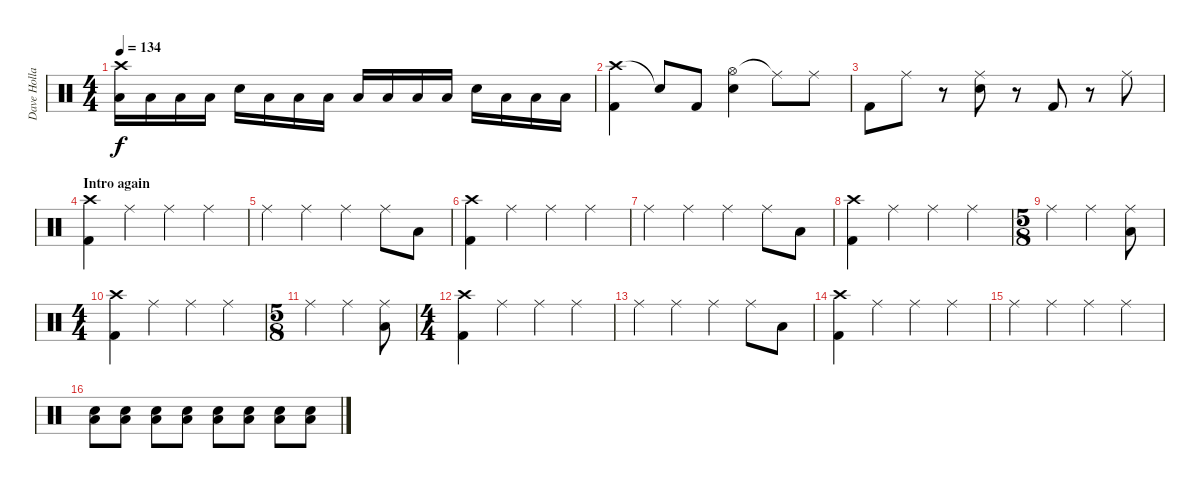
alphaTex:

\track ("Dave Holland" "Dave Holla") {instrument percussion}
\staff {score}
\articulation defaults
\ts (4 4)
\tempo 134
\clef neutral
\ks c
("Crash high (hit)" "Low Floor Tom (hit)").16{dy f} "Low Floor Tom (hit)".16 "Low Floor Tom (hit)".16 "Low Floor Tom (hit)".16 "Snare (hit) 2".16 "Low Floor Tom (hit)".16 "Low Floor Tom (hit)".16 "Low Floor Tom (hit)".16 "Low Floor Tom (hit)".16 "Low Floor Tom (hit)".16 "Low Floor Tom (hit)".16 "Low Floor Tom (hit)".16 "Snare (hit) 2".16 "Low Floor Tom (hit)".16 "Low Floor Tom (hit)".16 "Low Floor Tom (hit)".16 |
("Crash high (hit)" "Kick (hit) 2").4 "Snare (hit)"{t}.8 "Kick (hit) 2".8 ("Hi-Hat (open)" "Snare (hit) 2").4 "Ride (middle)"{t}.8 "Ride (middle)".8 |
"Kick (hit) 2".8 "Ride (middle)".8 r.8 ("Ride (middle)" "Snare (hit) 2").8 r.8 "Kick (hit) 2".8 r.8 "Ride (middle)".8 |
\section ("" "Intro again")
("Crash high (hit)" "Kick (hit) 2").4 "Ride (middle)".4 "Ride (middle)".4 "Ride (middle)".4 |
"Ride (middle)".4 "Ride (middle)".4 "Ride (middle)".4 "Ride (middle)".8 "Low Floor Tom (hit)".8 |
("Crash high (hit)" "Kick (hit) 2").4 "Ride (middle)".4 "Ride (middle)".4 "Ride (middle)".4 |
"Ride (middle)".4 "Ride (middle)".4 "Ride (middle)".4 "Ride (middle)".8 "Low Floor Tom (hit)".8 |
("Crash high (hit)" "Kick (hit) 2").4 "Ride (middle)".4 "Ride (middle)".4 "Ride (middle)".4 |
\ts (5 8)
"Ride (middle)".4 "Ride (middle)".4 ("Ride (middle)" "Low Floor Tom (hit)").8 |
\ts (4 4)
("Crash high (hit)" "Kick (hit) 2").4 "Ride (middle)".4 "Ride (middle)".4 "Ride (middle)".4 |
\ts (5 8)
"Ride (middle)".4 "Ride (middle)".4 ("Ride (middle)" "Low Floor Tom (hit)").8 |
\ts (4 4)
("Crash high (hit)" "Kick (hit) 2").4 "Ride (middle)".4 "Ride (middle)".4 "Ride (middle)".4 |
"Ride (middle)".4 "Ride (middle)".4 "Ride (middle)".4 "Ride (middle)".8 "Low Floor Tom (hit)".8 |
("Crash high (hit)" "Kick (hit) 2").4 "Ride (middle)".4 "Ride (middle)".4 "Ride (middle)".4 |
"Ride (middle)".4 "Ride (middle)".4 "Ride (middle)".4 "Ride (middle)".4 |
("Snare (hit) 2" "Low Floor Tom (hit)").8 ("Snare (hit) 2" "Low Floor Tom (hit)").8 ("Snare (hit) 2" "Low Floor Tom (hit)").8 ("Snare (hit) 2" "Low Floor Tom (hit)").8 ("Snare (hit) 2" "Low Floor Tom (hit)").8 ("Snare (hit) 2" "Low Floor Tom (hit)").8 ("Snare (hit) 2" "Low Floor Tom (hit)").8 ("Snare (hit) 2" "Low Floor Tom (hit)").8
